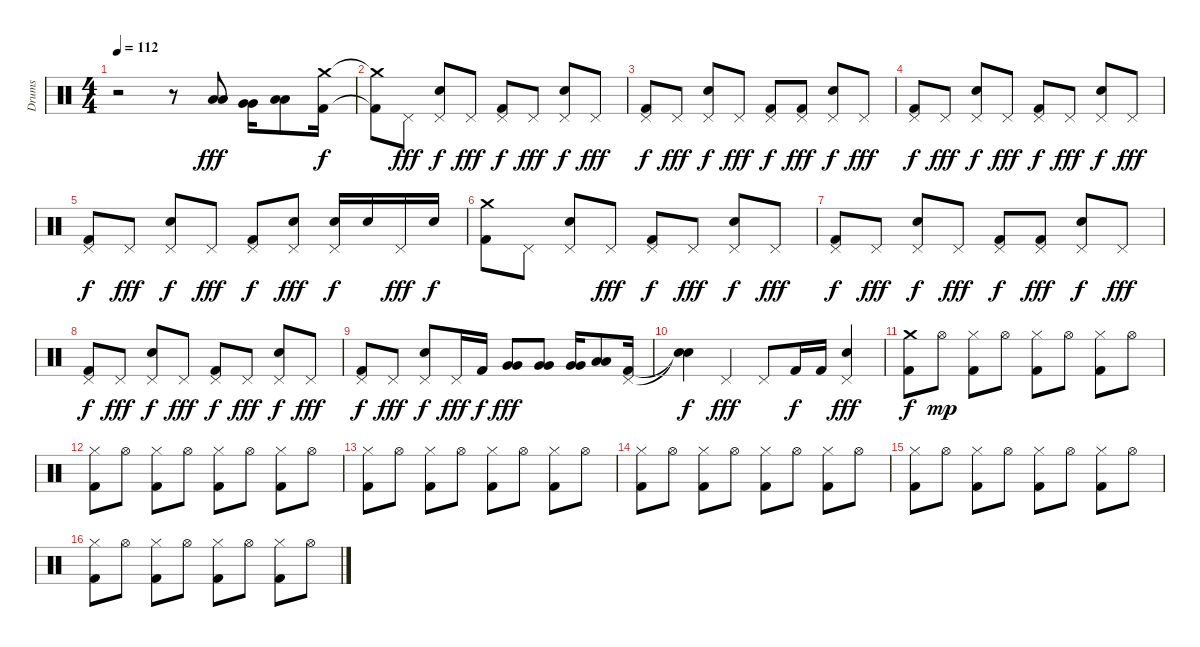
\track ("Drums" "Drums") {instrument percussion}
\staff {score}
\articulation defaults
\ts (4 4)
\tempo 112
\clef neutral
\ks c
r.2{dy f} r.8 ("Low Tom (hit)" "Low Tom (hit)").8{dy fff} ("Very Low Tom (hit)" "Very Low Tom (hit)").16 ("Low Floor Tom (hit)" "Low Floor Tom (hit)").8 ("Kick (hit) 2" "Crash medium (hit)").16{dy f} |
("Kick (hit) 2"{t} "Crash medium (hit)"{t}).8 "Pedal Hi-Hat (hit)".8{dy fff} ("Pedal Hi-Hat (hit)" "Snare (hit) 2").8{dy f} "Pedal Hi-Hat (hit)".8{dy fff} ("Kick (hit) 2" "Pedal Hi-Hat (hit)").8{dy f} "Pedal Hi-Hat (hit)".8{dy fff} ("Pedal Hi-Hat (hit)" "Snare (hit) 2").8{dy f} "Pedal Hi-Hat (hit)".8{dy fff} |
("Kick (hit) 2" "Pedal Hi-Hat (hit)").8{dy f} "Pedal Hi-Hat (hit)".8{dy fff} ("Pedal Hi-Hat (hit)" "Snare (hit) 2").8{dy f} "Pedal Hi-Hat (hit)".8{dy fff} ("Kick (hit) 2" "Pedal Hi-Hat (hit)").8{dy f} ("Kick (hit) 2" "Pedal Hi-Hat (hit)").8{dy fff} ("Pedal Hi-Hat (hit)" "Snare (hit) 2").8{dy f} "Pedal Hi-Hat (hit)".8{dy fff} |
("Kick (hit) 2" "Pedal Hi-Hat (hit)").8{dy f} "Pedal Hi-Hat (hit)".8{dy fff} ("Pedal Hi-Hat (hit)" "Snare (hit) 2").8{dy f} "Pedal Hi-Hat (hit)".8{dy fff} ("Kick (hit) 2" "Pedal Hi-Hat (hit)").8{dy f} "Pedal Hi-Hat (hit)".8{dy fff} ("Pedal Hi-Hat (hit)" "Snare (hit) 2").8{dy f} "Pedal Hi-Hat (hit)".8{dy fff} |
("Kick (hit) 2" "Pedal Hi-Hat (hit)").8{dy f} "Pedal Hi-Hat (hit)".8{dy fff} ("Pedal Hi-Hat (hit)" "Snare (hit) 2").8{dy f} "Pedal Hi-Hat (hit)".8{dy fff} ("Kick (hit) 2" "Pedal Hi-Hat (hit)").8{dy f} ("Pedal Hi-Hat (hit)" "Snare (hit) 2").8{dy fff} ("Pedal Hi-Hat (hit)" "Snare (hit) 2").16{dy f} "Snare (hit) 2".16 "Pedal Hi-Hat (hit)".16{dy fff} "Snare (hit) 2".16{dy f} |
("Kick (hit) 2" "Crash medium (hit)").8 "Pedal Hi-Hat (hit)".8 ("Pedal Hi-Hat (hit)" "Snare (hit) 2").8 "Pedal Hi-Hat (hit)".8{dy fff} ("Kick (hit) 2" "Pedal Hi-Hat (hit)").8{dy f} "Pedal Hi-Hat (hit)".8{dy fff} ("Pedal Hi-Hat (hit)" "Snare (hit) 2").8{dy f} "Pedal Hi-Hat (hit)".8{dy fff} |
("Kick (hit) 2" "Pedal Hi-Hat (hit)").8{dy f} "Pedal Hi-Hat (hit)".8{dy fff} ("Pedal Hi-Hat (hit)" "Snare (hit) 2").8{dy f} "Pedal Hi-Hat (hit)".8{dy fff} ("Kick (hit) 2" "Pedal Hi-Hat (hit)").8{dy f} ("Kick (hit) 2" "Pedal Hi-Hat (hit)").8{dy fff} ("Pedal Hi-Hat (hit)" "Snare (hit) 2").8{dy f} "Pedal Hi-Hat (hit)".8{dy fff} |
("Kick (hit) 2" "Pedal Hi-Hat (hit)").8{dy f} "Pedal Hi-Hat (hit)".8{dy fff} ("Pedal Hi-Hat (hit)" "Snare (hit) 2").8{dy f} "Pedal Hi-Hat (hit)".8{dy fff} ("Kick (hit) 2" "Pedal Hi-Hat (hit)").8{dy f} "Pedal Hi-Hat (hit)".8{dy fff} ("Pedal Hi-Hat (hit)" "Snare (hit) 2").8{dy f} "Pedal Hi-Hat (hit)".8{dy fff} |
("Kick (hit) 2" "Pedal Hi-Hat (hit)").8{dy f} "Pedal Hi-Hat (hit)".8{dy fff} ("Pedal Hi-Hat (hit)" "Snare (hit) 2").8{dy f} "Pedal Hi-Hat (hit)".16{dy fff} "Kick (hit) 2".16{dy f} ("Very Low Tom (hit)" "Very Low Tom (hit)").8{dy fff} ("Very Low Tom (hit)" "Very Low Tom (hit)").8 ("Very Low Tom (hit)" "Very Low Tom (hit)").16 ("Low Floor Tom (hit)" "Low Floor Tom (hit)").8 ("Kick (hit) 2" "Pedal Hi-Hat (hit)").16 |
("Snare (hit)"{t} "Snare (hit)"{t}).4{dy f} "Pedal Hi-Hat (hit)".4{dy fff} "Pedal Hi-Hat (hit)".8 "Kick (hit) 2".16{dy f} "Kick (hit) 2".16 ("Pedal Hi-Hat (hit)" "Snare (hit) 2").4{dy fff} |
("Kick (hit) 2" "Crash medium (hit)").8{dy f} "Hi-Hat (open)".8{dy mp} ("Kick (hit) 2" "Hi-Hat (closed)").8 "Hi-Hat (open)".8 ("Kick (hit) 2" "Hi-Hat (closed)").8 "Hi-Hat (open)".8 ("Kick (hit) 2" "Hi-Hat (closed)").8 "Hi-Hat (open)".8 |
("Kick (hit) 2" "Hi-Hat (closed)").8 "Hi-Hat (open)".8 ("Kick (hit) 2" "Hi-Hat (closed)").8 "Hi-Hat (open)".8 ("Kick (hit) 2" "Hi-Hat (closed)").8 "Hi-Hat (open)".8 ("Kick (hit) 2" "Hi-Hat (closed)").8 "Hi-Hat (open)".8 |
("Kick (hit) 2" "Hi-Hat (closed)").8 "Hi-Hat (open)".8 ("Kick (hit) 2" "Hi-Hat (closed)").8 "Hi-Hat (open)".8 ("Kick (hit) 2" "Hi-Hat (closed)").8 "Hi-Hat (open)".8 ("Kick (hit) 2" "Hi-Hat (closed)").8 "Hi-Hat (open)".8 |
("Kick (hit) 2" "Hi-Hat (closed)").8 "Hi-Hat (open)".8 ("Kick (hit) 2" "Hi-Hat (closed)").8 "Hi-Hat (open)".8 ("Kick (hit) 2" "Hi-Hat (closed)").8 "Hi-Hat (open)".8 ("Kick (hit) 2" "Hi-Hat (closed)").8 "Hi-Hat (open)".8 |
("Kick (hit) 2" "Hi-Hat (closed)").8 "Hi-Hat (open)".8 ("Kick (hit) 2" "Hi-Hat (closed)").8 "Hi-Hat (open)".8 ("Kick (hit) 2" "Hi-Hat (closed)").8 "Hi-Hat (open)".8 ("Kick (hit) 2" "Hi-Hat (closed)").8 "Hi-Hat (open)".8 |
("Kick (hit) 2" "Hi-Hat (closed)").8 "Hi-Hat (open)".8 ("Kick (hit) 2" "Hi-Hat (closed)").8 "Hi-Hat (open)".8 ("Kick (hit) 2" "Hi-Hat (closed)").8 "Hi-Hat (open)".8 ("Kick (hit) 2" "Hi-Hat (closed)").8 "Hi-Hat (open)".8
